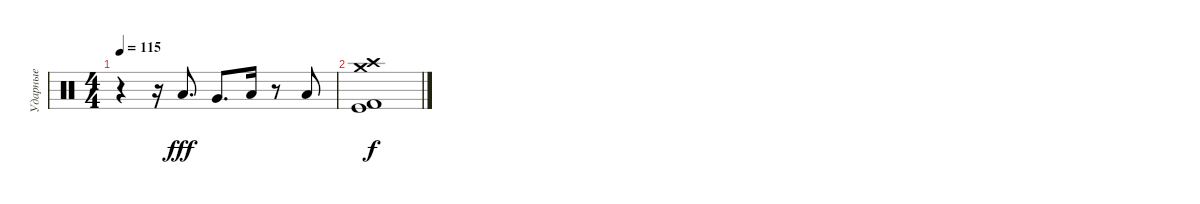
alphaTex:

\track ("Ударные" "Ударные") {instrument percussion}
\staff {score}
\articulation defaults
\ts (4 4)
\tempo 115
\clef neutral
\ks c
r.4{dy f} r.16 "Low Tom (hit)".8{d dy fff} "Very Low Tom (hit)".8{d} "Low Floor Tom (hit)".16 r.8 "Low Floor Tom (hit)".8 |
("Kick (hit)" "Crash medium (hit)" "Kick (hit) 2" "Crash high (hit)").1{dy f}
